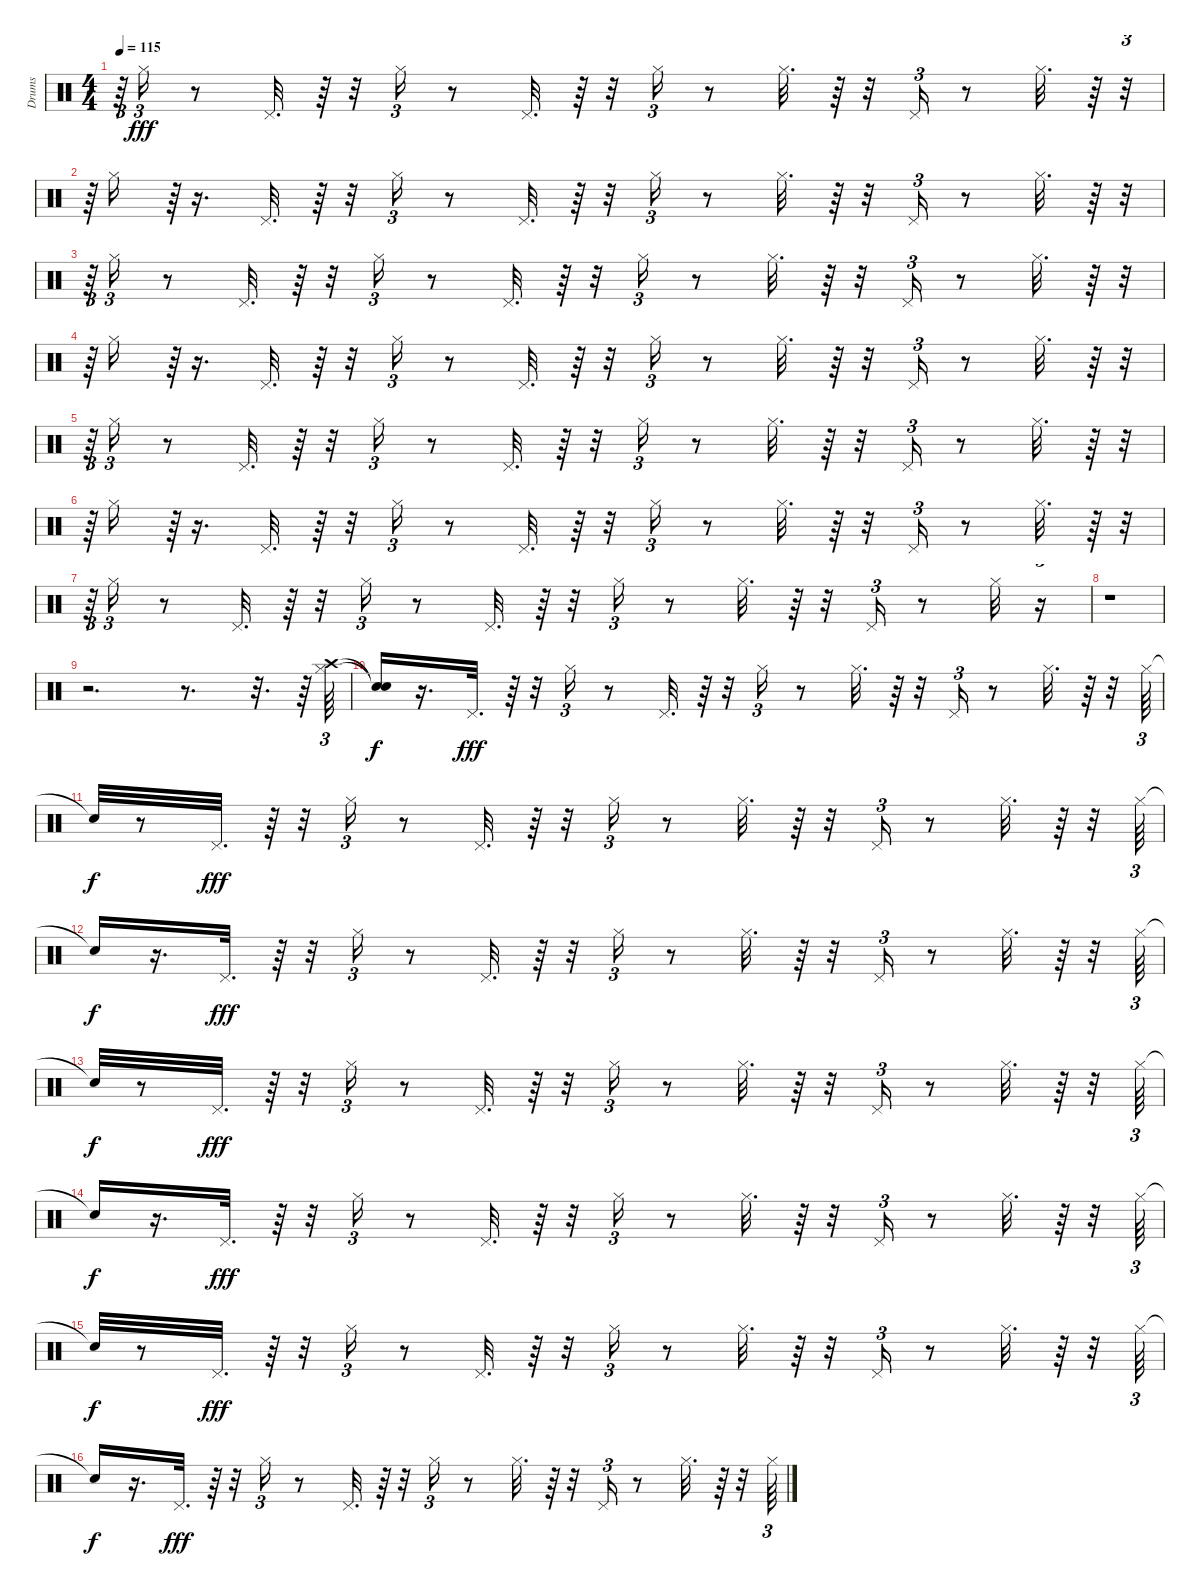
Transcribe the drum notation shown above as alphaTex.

\track ("Drums" "Drums") {instrument percussion}
\staff {score}
\articulation defaults
\ts (4 4)
\tempo 115
\clef neutral
\ks c
r.64{tu (3 2) dy fff} "Hi-Hat (closed)".16{tu (3 2)} r.8 "Pedal Hi-Hat (hit)".32{d} r.64 r.32 "Hi-Hat (closed)".16{tu (3 2)} r.8 "Pedal Hi-Hat (hit)".32{d} r.64 r.32 "Hi-Hat (closed)".16{tu (3 2)} r.8 "Hi-Hat (closed)".32{d} r.64 r.32 "Pedal Hi-Hat (hit)".16{tu (3 2)} r.8 "Hi-Hat (closed)".32{d} r.64 r.32{tu (3 2)} |
r.64{tu (3 2)} "Hi-Hat (closed)".16 r.64{tu (3 2)} r.16{d} "Pedal Hi-Hat (hit)".32{d} r.64 r.32 "Hi-Hat (closed)".16{tu (3 2)} r.8 "Pedal Hi-Hat (hit)".32{d} r.64 r.32 "Hi-Hat (closed)".16{tu (3 2)} r.8 "Hi-Hat (closed)".32{d} r.64 r.32 "Pedal Hi-Hat (hit)".16{tu (3 2)} r.8 "Hi-Hat (closed)".32{d} r.64 r.32{tu (3 2)} |
r.64{tu (3 2)} "Hi-Hat (closed)".16{tu (3 2)} r.8 "Pedal Hi-Hat (hit)".32{d} r.64 r.32 "Hi-Hat (closed)".16{tu (3 2)} r.8 "Pedal Hi-Hat (hit)".32{d} r.64 r.32 "Hi-Hat (closed)".16{tu (3 2)} r.8 "Hi-Hat (closed)".32{d} r.64 r.32 "Pedal Hi-Hat (hit)".16{tu (3 2)} r.8 "Hi-Hat (closed)".32{d} r.64 r.32{tu (3 2)} |
r.64{tu (3 2)} "Hi-Hat (closed)".16 r.64{tu (3 2)} r.16{d} "Pedal Hi-Hat (hit)".32{d} r.64 r.32 "Hi-Hat (closed)".16{tu (3 2)} r.8 "Pedal Hi-Hat (hit)".32{d} r.64 r.32 "Hi-Hat (closed)".16{tu (3 2)} r.8 "Hi-Hat (closed)".32{d} r.64 r.32 "Pedal Hi-Hat (hit)".16{tu (3 2)} r.8 "Hi-Hat (closed)".32{d} r.64 r.32{tu (3 2)} |
r.64{tu (3 2)} "Hi-Hat (closed)".16{tu (3 2)} r.8 "Pedal Hi-Hat (hit)".32{d} r.64 r.32 "Hi-Hat (closed)".16{tu (3 2)} r.8 "Pedal Hi-Hat (hit)".32{d} r.64 r.32 "Hi-Hat (closed)".16{tu (3 2)} r.8 "Hi-Hat (closed)".32{d} r.64 r.32 "Pedal Hi-Hat (hit)".16{tu (3 2)} r.8 "Hi-Hat (closed)".32{d} r.64 r.32{tu (3 2)} |
r.64{tu (3 2)} "Hi-Hat (closed)".16 r.64{tu (3 2)} r.16{d} "Pedal Hi-Hat (hit)".32{d} r.64 r.32 "Hi-Hat (closed)".16{tu (3 2)} r.8 "Pedal Hi-Hat (hit)".32{d} r.64 r.32 "Hi-Hat (closed)".16{tu (3 2)} r.8 "Hi-Hat (closed)".32{d} r.64 r.32 "Pedal Hi-Hat (hit)".16{tu (3 2)} r.8 "Hi-Hat (closed)".32{d} r.64 r.32{tu (3 2)} |
r.64{tu (3 2)} "Hi-Hat (closed)".16{tu (3 2)} r.8 "Pedal Hi-Hat (hit)".32{d} r.64 r.32 "Hi-Hat (closed)".16{tu (3 2)} r.8 "Pedal Hi-Hat (hit)".32{d} r.64 r.32 "Hi-Hat (closed)".16{tu (3 2)} r.8 "Hi-Hat (closed)".32{d} r.64 r.32 "Pedal Hi-Hat (hit)".16{tu (3 2)} r.8 "Hi-Hat (closed)".32 r.16{tu (3 2)} |
r.1 |
r.2{d} r.8{d} r.32{d} r.64 ("Crash high (hit)" "Hi-Hat (closed)").64{tu (3 2)} |
("Snare (hit)"{t} "Snare (hit)"{t}).16{dy f} r.16{d} "Pedal Hi-Hat (hit)".32{d dy fff} r.64 r.32 "Hi-Hat (closed)".16{tu (3 2)} r.8 "Pedal Hi-Hat (hit)".32{d} r.64 r.32 "Hi-Hat (closed)".16{tu (3 2)} r.8 "Hi-Hat (closed)".32{d} r.64 r.32 "Pedal Hi-Hat (hit)".16{tu (3 2)} r.8 "Hi-Hat (closed)".32{d} r.64 r.32 "Hi-Hat (closed)".64{tu (3 2)} |
"Snare (hit)"{t}.32{dy f} r.8 "Pedal Hi-Hat (hit)".32{d dy fff} r.64 r.32 "Hi-Hat (closed)".16{tu (3 2)} r.8 "Pedal Hi-Hat (hit)".32{d} r.64 r.32 "Hi-Hat (closed)".16{tu (3 2)} r.8 "Hi-Hat (closed)".32{d} r.64 r.32 "Pedal Hi-Hat (hit)".16{tu (3 2)} r.8 "Hi-Hat (closed)".32{d} r.64 r.32 "Hi-Hat (closed)".64{tu (3 2)} |
"Snare (hit)"{t}.16{dy f} r.16{d} "Pedal Hi-Hat (hit)".32{d dy fff} r.64 r.32 "Hi-Hat (closed)".16{tu (3 2)} r.8 "Pedal Hi-Hat (hit)".32{d} r.64 r.32 "Hi-Hat (closed)".16{tu (3 2)} r.8 "Hi-Hat (closed)".32{d} r.64 r.32 "Pedal Hi-Hat (hit)".16{tu (3 2)} r.8 "Hi-Hat (closed)".32{d} r.64 r.32 "Hi-Hat (closed)".64{tu (3 2)} |
"Snare (hit)"{t}.32{dy f} r.8 "Pedal Hi-Hat (hit)".32{d dy fff} r.64 r.32 "Hi-Hat (closed)".16{tu (3 2)} r.8 "Pedal Hi-Hat (hit)".32{d} r.64 r.32 "Hi-Hat (closed)".16{tu (3 2)} r.8 "Hi-Hat (closed)".32{d} r.64 r.32 "Pedal Hi-Hat (hit)".16{tu (3 2)} r.8 "Hi-Hat (closed)".32{d} r.64 r.32 "Hi-Hat (closed)".64{tu (3 2)} |
"Snare (hit)"{t}.16{dy f} r.16{d} "Pedal Hi-Hat (hit)".32{d dy fff} r.64 r.32 "Hi-Hat (closed)".16{tu (3 2)} r.8 "Pedal Hi-Hat (hit)".32{d} r.64 r.32 "Hi-Hat (closed)".16{tu (3 2)} r.8 "Hi-Hat (closed)".32{d} r.64 r.32 "Pedal Hi-Hat (hit)".16{tu (3 2)} r.8 "Hi-Hat (closed)".32{d} r.64 r.32 "Hi-Hat (closed)".64{tu (3 2)} |
"Snare (hit)"{t}.32{dy f} r.8 "Pedal Hi-Hat (hit)".32{d dy fff} r.64 r.32 "Hi-Hat (closed)".16{tu (3 2)} r.8 "Pedal Hi-Hat (hit)".32{d} r.64 r.32 "Hi-Hat (closed)".16{tu (3 2)} r.8 "Hi-Hat (closed)".32{d} r.64 r.32 "Pedal Hi-Hat (hit)".16{tu (3 2)} r.8 "Hi-Hat (closed)".32{d} r.64 r.32 "Hi-Hat (closed)".64{tu (3 2)} |
"Snare (hit)"{t}.16{dy f} r.16{d} "Pedal Hi-Hat (hit)".32{d dy fff} r.64 r.32 "Hi-Hat (closed)".16{tu (3 2)} r.8 "Pedal Hi-Hat (hit)".32{d} r.64 r.32 "Hi-Hat (closed)".16{tu (3 2)} r.8 "Hi-Hat (closed)".32{d} r.64 r.32 "Pedal Hi-Hat (hit)".16{tu (3 2)} r.8 "Hi-Hat (closed)".32{d} r.64 r.32 "Hi-Hat (closed)".64{tu (3 2)}
